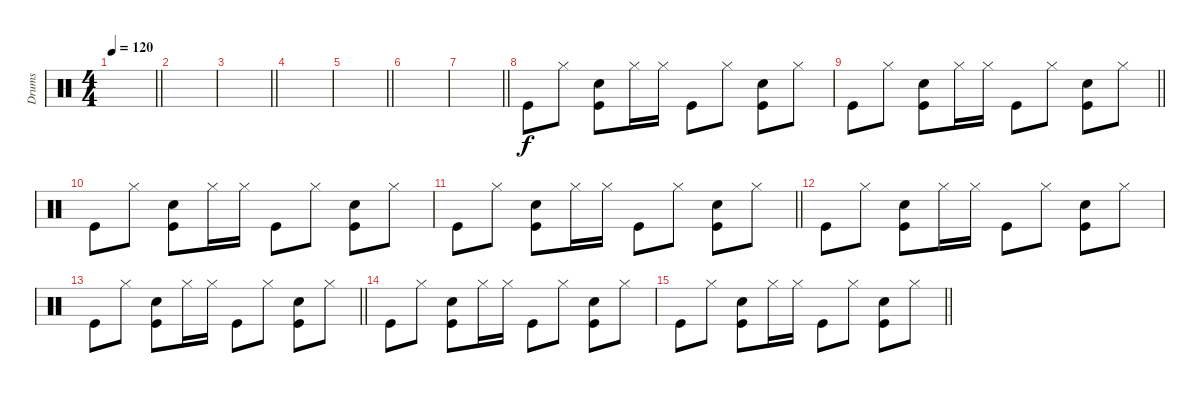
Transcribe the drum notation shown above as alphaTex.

\track ("Drums" "Drums") {instrument percussion}
\staff {score}
\articulation defaults
\ts (4 4)
\tempo 120
\clef neutral
\barLineRight lightlight
\ks c
|
|
\barLineRight lightlight
|
|
\barLineRight lightlight
|
|
\barLineRight lightlight
|
"Kick (hit)".8 "Hi-Hat (closed)".8 ("Snare (hit) 2" "Kick (hit)").8 "Hi-Hat (closed)".16 "Hi-Hat (closed)".16 "Kick (hit)".8 "Hi-Hat (closed)".8 ("Snare (hit) 2" "Kick (hit)").8 "Hi-Hat (closed)".8 |
\barLineRight lightlight "Kick (hit)".8 "Hi-Hat (closed)".8
("Snare (hit) 2" "Kick (hit)").8 "Hi-Hat (closed)".16 "Hi-Hat (closed)".16 "Kick (hit)".8 "Hi-Hat (closed)".8 ("Snare (hit) 2" "Kick (hit)").8 "Hi-Hat (closed)".8 |
"Kick (hit)".8 "Hi-Hat (closed)".8 ("Snare (hit) 2" "Kick (hit)").8 "Hi-Hat (closed)".16 "Hi-Hat (closed)".16 "Kick (hit)".8 "Hi-Hat (closed)".8 ("Snare (hit) 2" "Kick (hit)").8 "Hi-Hat (closed)".8 |
\barLineRight lightlight "Kick (hit)".8 "Hi-Hat (closed)".8
("Snare (hit) 2" "Kick (hit)").8 "Hi-Hat (closed)".16 "Hi-Hat (closed)".16 "Kick (hit)".8 "Hi-Hat (closed)".8 ("Snare (hit) 2" "Kick (hit)").8 "Hi-Hat (closed)".8 |
"Kick (hit)".8 "Hi-Hat (closed)".8 ("Snare (hit) 2" "Kick (hit)").8 "Hi-Hat (closed)".16 "Hi-Hat (closed)".16 "Kick (hit)".8 "Hi-Hat (closed)".8 ("Snare (hit) 2" "Kick (hit)").8 "Hi-Hat (closed)".8 |
\barLineRight lightlight "Kick (hit)".8 "Hi-Hat (closed)".8
("Snare (hit) 2" "Kick (hit)").8 "Hi-Hat (closed)".16 "Hi-Hat (closed)".16 "Kick (hit)".8 "Hi-Hat (closed)".8 ("Snare (hit) 2" "Kick (hit)").8 "Hi-Hat (closed)".8 |
"Kick (hit)".8 "Hi-Hat (closed)".8 ("Snare (hit) 2" "Kick (hit)").8 "Hi-Hat (closed)".16 "Hi-Hat (closed)".16 "Kick (hit)".8 "Hi-Hat (closed)".8 ("Snare (hit) 2" "Kick (hit)").8 "Hi-Hat (closed)".8 |
\barLineRight lightlight "Kick (hit)".8 "Hi-Hat (closed)".8
("Snare (hit) 2" "Kick (hit)").8 "Hi-Hat (closed)".16 "Hi-Hat (closed)".16 "Kick (hit)".8 "Hi-Hat (closed)".8 ("Snare (hit) 2" "Kick (hit)").8 "Hi-Hat (closed)".8
